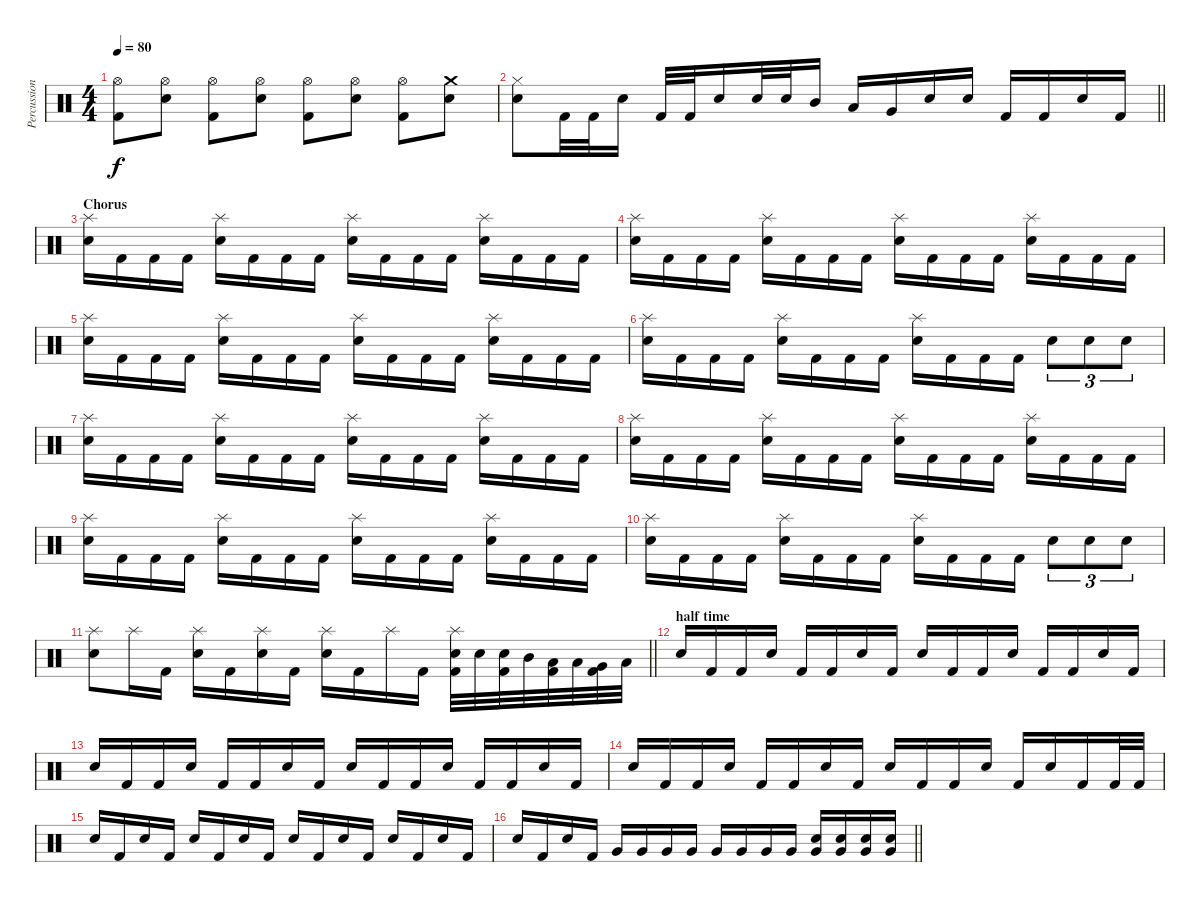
\track ("Percussion" "Percussion") {instrument percussion}
\staff {score}
\articulation defaults
\ts (4 4)
\tempo 80
\clef neutral
\ks c
("Hi-Hat (open)" "Kick (hit) 2").8{dy f} ("Hi-Hat (open)" "Snare (hit) 2").8 ("Hi-Hat (open)" "Kick (hit) 2").8 ("Hi-Hat (open)" "Snare (hit) 2").8 ("Hi-Hat (open)" "Kick (hit) 2").8 ("Hi-Hat (open)" "Snare (hit) 2").8 ("Hi-Hat (open)" "Kick (hit) 2").8 ("Crash medium (hit)" "Snare (hit) 2").8 |
\barLineRight lightlight
("Hi-Hat (closed)" "Snare (hit) 2").8 "Kick (hit) 2".32 "Kick (hit) 2".32 "Snare (hit) 2".16 "Kick (hit) 2".32 "Kick (hit) 2".32 "Snare (hit) 2".16 "Snare (hit) 2".32 "Snare (hit) 2".32 "Mid Tom (hit)".16 "Low Tom (hit)".16 "Very Low Tom (hit)".16 "Snare (hit) 2".16 "Snare (hit) 2".16 "Kick (hit) 2".16 "Kick (hit) 2".16 "Snare (hit) 2".16 "Kick (hit) 2".16 |
\section ("" "Chorus")
("Splash (hit)" "Snare (hit) 2").16 "Kick (hit) 2".16 "Kick (hit) 2".16 "Kick (hit) 2".16 ("Splash (hit)" "Snare (hit) 2").16 "Kick (hit) 2".16 "Kick (hit) 2".16 "Kick (hit) 2".16 ("Splash (hit)" "Snare (hit) 2").16 "Kick (hit) 2".16 "Kick (hit) 2".16 "Kick (hit) 2".16 ("Splash (hit)" "Snare (hit) 2").16 "Kick (hit) 2".16 "Kick (hit) 2".16 "Kick (hit) 2".16 |
("Splash (hit)" "Snare (hit) 2").16 "Kick (hit) 2".16 "Kick (hit) 2".16 "Kick (hit) 2".16 ("Splash (hit)" "Snare (hit) 2").16 "Kick (hit) 2".16 "Kick (hit) 2".16 "Kick (hit) 2".16 ("Splash (hit)" "Snare (hit) 2").16 "Kick (hit) 2".16 "Kick (hit) 2".16 "Kick (hit) 2".16 ("Splash (hit)" "Snare (hit) 2").16 "Kick (hit) 2".16 "Kick (hit) 2".16 "Kick (hit) 2".16 |
("Splash (hit)" "Snare (hit) 2").16 "Kick (hit) 2".16 "Kick (hit) 2".16 "Kick (hit) 2".16 ("Splash (hit)" "Snare (hit) 2").16 "Kick (hit) 2".16 "Kick (hit) 2".16 "Kick (hit) 2".16 ("Splash (hit)" "Snare (hit) 2").16 "Kick (hit) 2".16 "Kick (hit) 2".16 "Kick (hit) 2".16 ("Splash (hit)" "Snare (hit) 2").16 "Kick (hit) 2".16 "Kick (hit) 2".16 "Kick (hit) 2".16 |
("Splash (hit)" "Snare (hit) 2").16 "Kick (hit) 2".16 "Kick (hit) 2".16 "Kick (hit) 2".16 ("Splash (hit)" "Snare (hit) 2").16 "Kick (hit) 2".16 "Kick (hit) 2".16 "Kick (hit) 2".16 ("Splash (hit)" "Snare (hit) 2").16 "Kick (hit) 2".16 "Kick (hit) 2".16 "Kick (hit) 2".16 "Snare (hit) 2".8{tu (3 2)} "Snare (hit) 2".8{tu (3 2)} "Snare (hit) 2".8{tu (3 2)} |
("Splash (hit)" "Snare (hit) 2").16 "Kick (hit) 2".16 "Kick (hit) 2".16 "Kick (hit) 2".16 ("Splash (hit)" "Snare (hit) 2").16 "Kick (hit) 2".16 "Kick (hit) 2".16 "Kick (hit) 2".16 ("Splash (hit)" "Snare (hit) 2").16 "Kick (hit) 2".16 "Kick (hit) 2".16 "Kick (hit) 2".16 ("Splash (hit)" "Snare (hit) 2").16 "Kick (hit) 2".16 "Kick (hit) 2".16 "Kick (hit) 2".16 |
("Splash (hit)" "Snare (hit) 2").16 "Kick (hit) 2".16 "Kick (hit) 2".16 "Kick (hit) 2".16 ("Splash (hit)" "Snare (hit) 2").16 "Kick (hit) 2".16 "Kick (hit) 2".16 "Kick (hit) 2".16 ("Splash (hit)" "Snare (hit) 2").16 "Kick (hit) 2".16 "Kick (hit) 2".16 "Kick (hit) 2".16 ("Splash (hit)" "Snare (hit) 2").16 "Kick (hit) 2".16 "Kick (hit) 2".16 "Kick (hit) 2".16 |
("Splash (hit)" "Snare (hit) 2").16 "Kick (hit) 2".16 "Kick (hit) 2".16 "Kick (hit) 2".16 ("Splash (hit)" "Snare (hit) 2").16 "Kick (hit) 2".16 "Kick (hit) 2".16 "Kick (hit) 2".16 ("Splash (hit)" "Snare (hit) 2").16 "Kick (hit) 2".16 "Kick (hit) 2".16 "Kick (hit) 2".16 ("Splash (hit)" "Snare (hit) 2").16 "Kick (hit) 2".16 "Kick (hit) 2".16 "Kick (hit) 2".16 |
("Splash (hit)" "Snare (hit) 2").16 "Kick (hit) 2".16 "Kick (hit) 2".16 "Kick (hit) 2".16 ("Splash (hit)" "Snare (hit) 2").16 "Kick (hit) 2".16 "Kick (hit) 2".16 "Kick (hit) 2".16 ("Splash (hit)" "Snare (hit) 2").16 "Kick (hit) 2".16 "Kick (hit) 2".16 "Kick (hit) 2".16 "Snare (hit) 2".8{tu (3 2)} "Snare (hit) 2".8{tu (3 2)} "Snare (hit) 2".8{tu (3 2)} |
\barLineRight lightlight
("Splash (hit)" "Snare (hit) 2").8 "Splash (hit)".16 "Kick (hit) 2".16 ("Splash (hit)" "Snare (hit) 2").16 "Kick (hit) 2".16 ("Splash (hit)" "Snare (hit) 2").16 "Kick (hit) 2".16 ("Splash (hit)" "Snare (hit) 2").16 "Kick (hit) 2".16 "Splash (hit)".16 "Kick (hit) 2".16 ("Splash (hit)" "Snare (hit) 2" "Kick (hit) 2").32 "Snare (hit) 2".32 ("Snare (hit) 2" "Kick (hit) 2").32 "Mid Tom (hit)".32 ("Low Tom (hit)" "Kick (hit) 2").32 "Low Tom (hit)".32 ("Very Low Tom (hit)" "Kick (hit) 2").32 "Low Floor Tom (hit)".32 |
\section ("" "half time")
"Snare (hit) 2".16 "Kick (hit) 2".16 "Kick (hit) 2".16 "Snare (hit) 2".16 "Kick (hit) 2".16 "Kick (hit) 2".16 "Snare (hit) 2".16 "Kick (hit) 2".16 "Snare (hit) 2".16 "Kick (hit) 2".16 "Kick (hit) 2".16 "Snare (hit) 2".16 "Kick (hit) 2".16 "Kick (hit) 2".16 "Snare (hit) 2".16 "Kick (hit) 2".16 |
"Snare (hit) 2".16 "Kick (hit) 2".16 "Kick (hit) 2".16 "Snare (hit) 2".16 "Kick (hit) 2".16 "Kick (hit) 2".16 "Snare (hit) 2".16 "Kick (hit) 2".16 "Snare (hit) 2".16 "Kick (hit) 2".16 "Kick (hit) 2".16 "Snare (hit) 2".16 "Kick (hit) 2".16 "Kick (hit) 2".16 "Snare (hit) 2".16 "Kick (hit) 2".16 |
"Snare (hit) 2".16 "Kick (hit) 2".16 "Kick (hit) 2".16 "Snare (hit) 2".16 "Kick (hit) 2".16 "Kick (hit) 2".16 "Snare (hit) 2".16 "Kick (hit) 2".16 "Snare (hit) 2".16 "Kick (hit) 2".16 "Kick (hit) 2".16 "Snare (hit) 2".16 "Kick (hit) 2".16 "Snare (hit) 2".16 "Kick (hit) 2".16 "Kick (hit) 2".32 "Kick (hit) 2".32 |
"Snare (hit) 2".16 "Kick (hit) 2".16 "Snare (hit) 2".16 "Kick (hit) 2".16 "Snare (hit) 2".16 "Kick (hit) 2".16 "Snare (hit) 2".16 "Kick (hit) 2".16 "Snare (hit) 2".16 "Kick (hit) 2".16 "Snare (hit) 2".16 "Kick (hit) 2".16 "Snare (hit) 2".16 "Kick (hit) 2".16 "Snare (hit) 2".16 "Kick (hit) 2".16 |
\barLineRight lightlight "Snare (hit) 2".16 "Kick (hit) 2".16 "Snare (hit) 2".16 "Kick (hit) 2".16 "Very Low Tom (hit)".16 "Very Low Tom (hit)".16 "Very Low Tom (hit)".16 "Very Low Tom (hit)".16 "Very Low Tom (hit)".16 "Very Low Tom (hit)".16 "Very Low Tom (hit)".16 "Very Low Tom (hit)".16
("Snare (hit) 2" "Very Low Tom (hit)").16 ("Snare (hit) 2" "Very Low Tom (hit)").16 ("Snare (hit) 2" "Very Low Tom (hit)").16 ("Snare (hit) 2" "Very Low Tom (hit)").16
